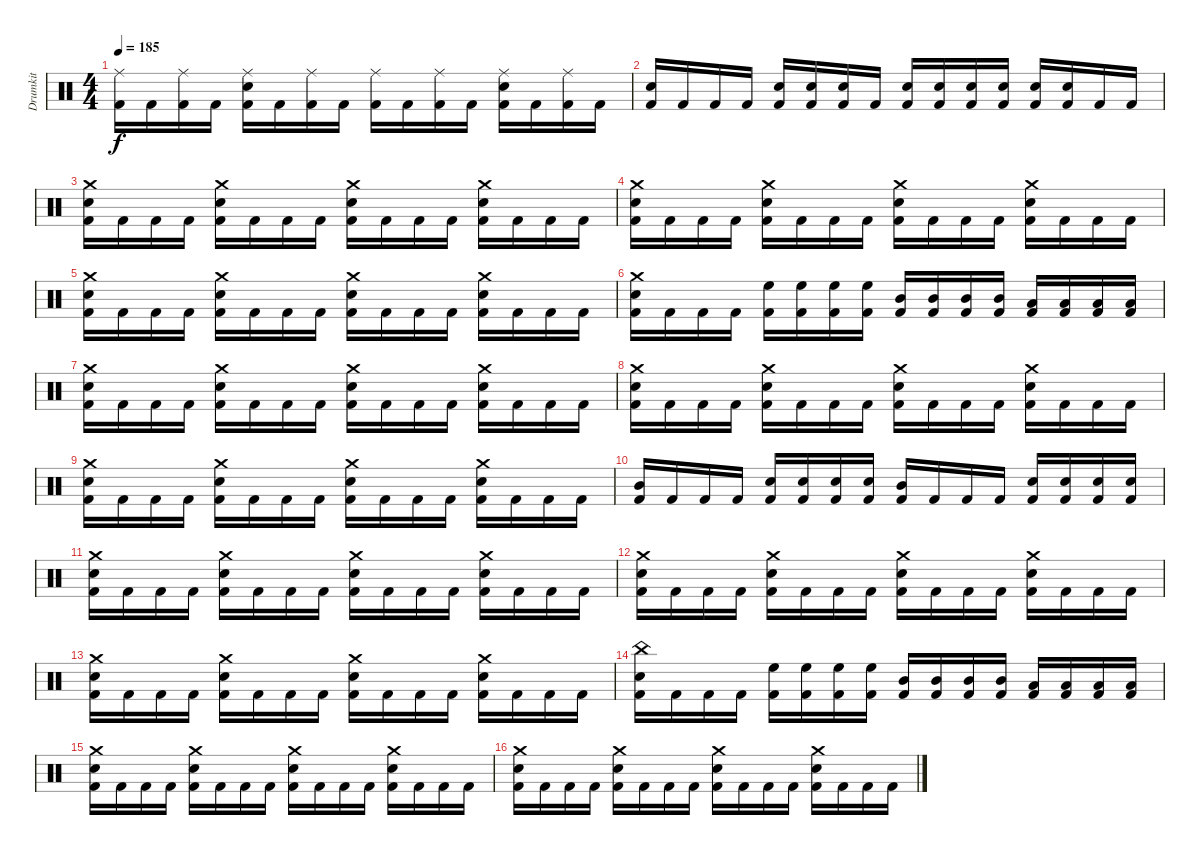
\track ("Drumkit" "Drumkit") {instrument percussion}
\staff {score}
\articulation defaults
\ts (4 4)
\tempo 185
\clef neutral
\ks c
("Ride (middle)" "Kick (hit) 2").16{dy f} "Kick (hit) 2".16 ("Ride (middle)" "Kick (hit) 2").16 "Kick (hit) 2".16 ("Ride (middle)" "Snare (hit) 2" "Kick (hit) 2").16 "Kick (hit) 2".16 ("Ride (middle)" "Kick (hit) 2").16 "Kick (hit) 2".16 ("Ride (middle)" "Kick (hit) 2").16 "Kick (hit) 2".16 ("Ride (middle)" "Kick (hit) 2").16 "Kick (hit) 2".16 ("Ride (middle)" "Snare (hit) 2" "Kick (hit) 2").16 "Kick (hit) 2".16 ("Ride (middle)" "Kick (hit) 2").16 "Kick (hit) 2".16 |
("Snare (hit) 2" "Kick (hit) 2").16 "Kick (hit) 2".16 "Kick (hit) 2".16 "Kick (hit) 2".16 ("Snare (hit) 2" "Kick (hit) 2").16 ("Snare (hit) 2" "Kick (hit) 2").16 ("Snare (hit) 2" "Kick (hit) 2").16 "Kick (hit) 2".16 ("Snare (hit) 2" "Kick (hit) 2").16 ("Snare (hit) 2" "Kick (hit) 2").16 ("Snare (hit) 2" "Kick (hit) 2").16 ("Snare (hit) 2" "Kick (hit) 2").16 ("Snare (hit) 2" "Kick (hit) 2").16 ("Snare (hit) 2" "Kick (hit) 2").16 "Kick (hit) 2".16 "Kick (hit) 2".16 |
("Crash medium (hit)" "Snare (hit) 2" "Kick (hit) 2").16 "Kick (hit) 2".16 "Kick (hit) 2".16 "Kick (hit) 2".16 ("Crash medium (hit)" "Snare (hit) 2" "Kick (hit) 2").16 "Kick (hit) 2".16 "Kick (hit) 2".16 "Kick (hit) 2".16 ("Crash medium (hit)" "Snare (hit) 2" "Kick (hit) 2").16 "Kick (hit) 2".16 "Kick (hit) 2".16 "Kick (hit) 2".16 ("Crash medium (hit)" "Snare (hit) 2" "Kick (hit) 2").16 "Kick (hit) 2".16 "Kick (hit) 2".16 "Kick (hit) 2".16 |
("Crash medium (hit)" "Snare (hit) 2" "Kick (hit) 2").16 "Kick (hit) 2".16 "Kick (hit) 2".16 "Kick (hit) 2".16 ("Crash medium (hit)" "Snare (hit) 2" "Kick (hit) 2").16 "Kick (hit) 2".16 "Kick (hit) 2".16 "Kick (hit) 2".16 ("Crash medium (hit)" "Snare (hit) 2" "Kick (hit) 2").16 "Kick (hit) 2".16 "Kick (hit) 2".16 "Kick (hit) 2".16 ("Crash medium (hit)" "Snare (hit) 2" "Kick (hit) 2").16 "Kick (hit) 2".16 "Kick (hit) 2".16 "Kick (hit) 2".16 |
("Crash medium (hit)" "Snare (hit) 2" "Kick (hit) 2").16 "Kick (hit) 2".16 "Kick (hit) 2".16 "Kick (hit) 2".16 ("Crash medium (hit)" "Snare (hit) 2" "Kick (hit) 2").16 "Kick (hit) 2".16 "Kick (hit) 2".16 "Kick (hit) 2".16 ("Crash medium (hit)" "Snare (hit) 2" "Kick (hit) 2").16 "Kick (hit) 2".16 "Kick (hit) 2".16 "Kick (hit) 2".16 ("Crash medium (hit)" "Snare (hit) 2" "Kick (hit) 2").16 "Kick (hit) 2".16 "Kick (hit) 2".16 "Kick (hit) 2".16 |
("Crash medium (hit)" "Snare (hit) 2" "Kick (hit) 2").16 "Kick (hit) 2".16 "Kick (hit) 2".16 "Kick (hit) 2".16 ("High Floor Tom (hit)" "Kick (hit) 2").16 ("High Floor Tom (hit)" "Kick (hit) 2").16 ("High Floor Tom (hit)" "Kick (hit) 2").16 ("High Floor Tom (hit)" "Kick (hit) 2").16 ("Mid Tom (hit)" "Kick (hit) 2").16 ("Mid Tom (hit)" "Kick (hit) 2").16 ("Mid Tom (hit)" "Kick (hit) 2").16 ("Mid Tom (hit)" "Kick (hit) 2").16 ("Low Tom (hit)" "Kick (hit) 2").16 ("Low Tom (hit)" "Kick (hit) 2").16 ("Low Tom (hit)" "Kick (hit) 2").16 ("Low Tom (hit)" "Kick (hit) 2").16 |
("Crash medium (hit)" "Snare (hit) 2" "Kick (hit) 2").16 "Kick (hit) 2".16 "Kick (hit) 2".16 "Kick (hit) 2".16 ("Crash medium (hit)" "Snare (hit) 2" "Kick (hit) 2").16 "Kick (hit) 2".16 "Kick (hit) 2".16 "Kick (hit) 2".16 ("Crash medium (hit)" "Snare (hit) 2" "Kick (hit) 2").16 "Kick (hit) 2".16 "Kick (hit) 2".16 "Kick (hit) 2".16 ("Crash medium (hit)" "Snare (hit) 2" "Kick (hit) 2").16 "Kick (hit) 2".16 "Kick (hit) 2".16 "Kick (hit) 2".16 |
("Crash medium (hit)" "Snare (hit) 2" "Kick (hit) 2").16 "Kick (hit) 2".16 "Kick (hit) 2".16 "Kick (hit) 2".16 ("Crash medium (hit)" "Snare (hit) 2" "Kick (hit) 2").16 "Kick (hit) 2".16 "Kick (hit) 2".16 "Kick (hit) 2".16 ("Crash medium (hit)" "Snare (hit) 2" "Kick (hit) 2").16 "Kick (hit) 2".16 "Kick (hit) 2".16 "Kick (hit) 2".16 ("Crash medium (hit)" "Snare (hit) 2" "Kick (hit) 2").16 "Kick (hit) 2".16 "Kick (hit) 2".16 "Kick (hit) 2".16 |
("Crash medium (hit)" "Snare (hit) 2" "Kick (hit) 2").16 "Kick (hit) 2".16 "Kick (hit) 2".16 "Kick (hit) 2".16 ("Crash medium (hit)" "Snare (hit) 2" "Kick (hit) 2").16 "Kick (hit) 2".16 "Kick (hit) 2".16 "Kick (hit) 2".16 ("Crash medium (hit)" "Snare (hit) 2" "Kick (hit) 2").16 "Kick (hit) 2".16 "Kick (hit) 2".16 "Kick (hit) 2".16 ("Crash medium (hit)" "Snare (hit) 2" "Kick (hit) 2").16 "Kick (hit) 2".16 "Kick (hit) 2".16 "Kick (hit) 2".16 |
("Mid Tom (hit)" "Kick (hit) 2").16 "Kick (hit) 2".16 "Kick (hit) 2".16 "Kick (hit) 2".16 ("Snare (hit) 2" "Kick (hit) 2").16 ("Snare (hit) 2" "Kick (hit) 2").16 ("Snare (hit) 2" "Kick (hit) 2").16 ("Snare (hit) 2" "Kick (hit) 2").16 ("Mid Tom (hit)" "Kick (hit) 2").16 "Kick (hit) 2".16 "Kick (hit) 2".16 "Kick (hit) 2".16 ("Snare (hit) 2" "Kick (hit) 2").16 ("Snare (hit) 2" "Kick (hit) 2").16 ("Snare (hit) 2" "Kick (hit) 2").16 ("Snare (hit) 2" "Kick (hit) 2").16 |
("Crash medium (hit)" "Snare (hit) 2" "Kick (hit) 2").16 "Kick (hit) 2".16 "Kick (hit) 2".16 "Kick (hit) 2".16 ("Crash medium (hit)" "Snare (hit) 2" "Kick (hit) 2").16 "Kick (hit) 2".16 "Kick (hit) 2".16 "Kick (hit) 2".16 ("Crash medium (hit)" "Snare (hit) 2" "Kick (hit) 2").16 "Kick (hit) 2".16 "Kick (hit) 2".16 "Kick (hit) 2".16 ("Crash medium (hit)" "Snare (hit) 2" "Kick (hit) 2").16 "Kick (hit) 2".16 "Kick (hit) 2".16 "Kick (hit) 2".16 |
("Crash medium (hit)" "Snare (hit) 2" "Kick (hit) 2").16 "Kick (hit) 2".16 "Kick (hit) 2".16 "Kick (hit) 2".16 ("Crash medium (hit)" "Snare (hit) 2" "Kick (hit) 2").16 "Kick (hit) 2".16 "Kick (hit) 2".16 "Kick (hit) 2".16 ("Crash medium (hit)" "Snare (hit) 2" "Kick (hit) 2").16 "Kick (hit) 2".16 "Kick (hit) 2".16 "Kick (hit) 2".16 ("Crash medium (hit)" "Snare (hit) 2" "Kick (hit) 2").16 "Kick (hit) 2".16 "Kick (hit) 2".16 "Kick (hit) 2".16 |
("Crash medium (hit)" "Snare (hit) 2" "Kick (hit) 2").16 "Kick (hit) 2".16 "Kick (hit) 2".16 "Kick (hit) 2".16 ("Crash medium (hit)" "Snare (hit) 2" "Kick (hit) 2").16 "Kick (hit) 2".16 "Kick (hit) 2".16 "Kick (hit) 2".16 ("Crash medium (hit)" "Snare (hit) 2" "Kick (hit) 2").16 "Kick (hit) 2".16 "Kick (hit) 2".16 "Kick (hit) 2".16 ("Crash medium (hit)" "Snare (hit) 2" "Kick (hit) 2").16 "Kick (hit) 2".16 "Kick (hit) 2".16 "Kick (hit) 2".16 |
("China (hit)" "Snare (hit) 2" "Kick (hit) 2").16 "Kick (hit) 2".16 "Kick (hit) 2".16 "Kick (hit) 2".16 ("High Floor Tom (hit)" "Kick (hit) 2").16 ("High Floor Tom (hit)" "Kick (hit) 2").16 ("High Floor Tom (hit)" "Kick (hit) 2").16 ("High Floor Tom (hit)" "Kick (hit) 2").16 ("Mid Tom (hit)" "Kick (hit) 2").16 ("Mid Tom (hit)" "Kick (hit) 2").16 ("Mid Tom (hit)" "Kick (hit) 2").16 ("Mid Tom (hit)" "Kick (hit) 2").16 ("Low Tom (hit)" "Kick (hit) 2").16 ("Low Tom (hit)" "Kick (hit) 2").16 ("Low Tom (hit)" "Kick (hit) 2").16 ("Low Tom (hit)" "Kick (hit) 2").16 |
("Crash medium (hit)" "Snare (hit) 2" "Kick (hit) 2").16 "Kick (hit) 2".16 "Kick (hit) 2".16 "Kick (hit) 2".16 ("Crash medium (hit)" "Snare (hit) 2" "Kick (hit) 2").16 "Kick (hit) 2".16 "Kick (hit) 2".16 "Kick (hit) 2".16 ("Crash medium (hit)" "Snare (hit) 2" "Kick (hit) 2").16 "Kick (hit) 2".16 "Kick (hit) 2".16 "Kick (hit) 2".16 ("Crash medium (hit)" "Snare (hit) 2" "Kick (hit) 2").16 "Kick (hit) 2".16 "Kick (hit) 2".16 "Kick (hit) 2".16 |
("Crash medium (hit)" "Snare (hit) 2" "Kick (hit) 2").16 "Kick (hit) 2".16 "Kick (hit) 2".16 "Kick (hit) 2".16 ("Crash medium (hit)" "Snare (hit) 2" "Kick (hit) 2").16 "Kick (hit) 2".16 "Kick (hit) 2".16 "Kick (hit) 2".16 ("Crash medium (hit)" "Snare (hit) 2" "Kick (hit) 2").16 "Kick (hit) 2".16 "Kick (hit) 2".16 "Kick (hit) 2".16 ("Crash medium (hit)" "Snare (hit) 2" "Kick (hit) 2").16 "Kick (hit) 2".16 "Kick (hit) 2".16 "Kick (hit) 2".16
